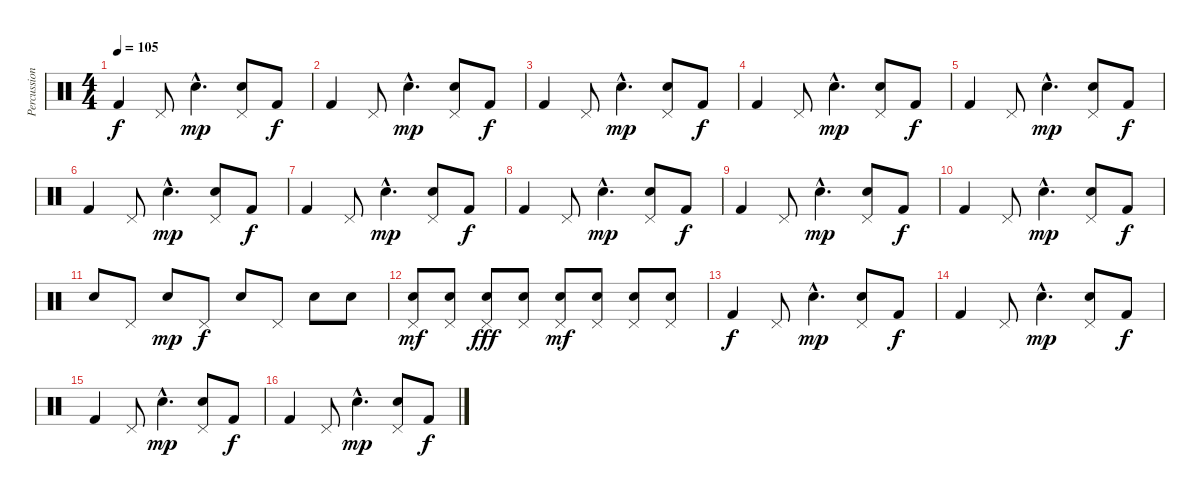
\track ("Percussion" "Percussion") {instrument percussion}
\staff {score}
\articulation defaults
\ts (4 4)
\tempo 105
\clef neutral
\ks c "Kick (hit) 2".4{dy f} "Pedal Hi-Hat (hit)".8 "Hand Clap (hit)"{hac}.4{d dy mp}
("Pedal Hi-Hat (hit)" "Hand Clap (hit)").8 "Kick (hit) 2".8{dy f} |
"Kick (hit) 2".4 "Pedal Hi-Hat (hit)".8 "Hand Clap (hit)"{hac}.4{d dy mp} ("Pedal Hi-Hat (hit)" "Hand Clap (hit)").8 "Kick (hit) 2".8{dy f} |
"Kick (hit) 2".4 "Pedal Hi-Hat (hit)".8 "Hand Clap (hit)"{hac}.4{d dy mp} ("Pedal Hi-Hat (hit)" "Hand Clap (hit)").8 "Kick (hit) 2".8{dy f} |
"Kick (hit) 2".4 "Pedal Hi-Hat (hit)".8 "Hand Clap (hit)"{hac}.4{d dy mp} ("Pedal Hi-Hat (hit)" "Hand Clap (hit)").8 "Kick (hit) 2".8{dy f} |
"Kick (hit) 2".4 "Pedal Hi-Hat (hit)".8 "Hand Clap (hit)"{hac}.4{d dy mp} ("Pedal Hi-Hat (hit)" "Hand Clap (hit)").8 "Kick (hit) 2".8{dy f} |
"Kick (hit) 2".4 "Pedal Hi-Hat (hit)".8 "Hand Clap (hit)"{hac}.4{d dy mp} ("Pedal Hi-Hat (hit)" "Hand Clap (hit)").8 "Kick (hit) 2".8{dy f} |
"Kick (hit) 2".4 "Pedal Hi-Hat (hit)".8 "Hand Clap (hit)"{hac}.4{d dy mp} ("Pedal Hi-Hat (hit)" "Hand Clap (hit)").8 "Kick (hit) 2".8{dy f} |
"Kick (hit) 2".4 "Pedal Hi-Hat (hit)".8 "Hand Clap (hit)"{hac}.4{d dy mp} ("Pedal Hi-Hat (hit)" "Hand Clap (hit)").8 "Kick (hit) 2".8{dy f} |
"Kick (hit) 2".4 "Pedal Hi-Hat (hit)".8 "Hand Clap (hit)"{hac}.4{d dy mp} ("Pedal Hi-Hat (hit)" "Hand Clap (hit)").8 "Kick (hit) 2".8{dy f} |
"Kick (hit) 2".4 "Pedal Hi-Hat (hit)".8 "Hand Clap (hit)"{hac}.4{d dy mp} ("Pedal Hi-Hat (hit)" "Hand Clap (hit)").8 "Kick (hit) 2".8{dy f} |
"Hand Clap (hit)".8 "Pedal Hi-Hat (hit)".8 "Hand Clap (hit)".8{dy mp} "Pedal Hi-Hat (hit)".8{dy f} "Hand Clap (hit)".8 "Pedal Hi-Hat (hit)".8 "Hand Clap (hit)".8 "Hand Clap (hit)".8 |
("Pedal Hi-Hat (hit)" "Hand Clap (hit)").8{dy mf} ("Pedal Hi-Hat (hit)" "Hand Clap (hit)").8 ("Pedal Hi-Hat (hit)" "Hand Clap (hit)").8{dy fff} ("Pedal Hi-Hat (hit)" "Hand Clap (hit)").8 ("Pedal Hi-Hat (hit)" "Hand Clap (hit)").8{dy mf} ("Pedal Hi-Hat (hit)" "Hand Clap (hit)").8 ("Pedal Hi-Hat (hit)" "Hand Clap (hit)").8 ("Pedal Hi-Hat (hit)" "Hand Clap (hit)").8 |
"Kick (hit) 2".4{dy f} "Pedal Hi-Hat (hit)".8 "Hand Clap (hit)"{hac}.4{d dy mp} ("Pedal Hi-Hat (hit)" "Hand Clap (hit)").8 "Kick (hit) 2".8{dy f} |
"Kick (hit) 2".4 "Pedal Hi-Hat (hit)".8 "Hand Clap (hit)"{hac}.4{d dy mp} ("Pedal Hi-Hat (hit)" "Hand Clap (hit)").8 "Kick (hit) 2".8{dy f} |
"Kick (hit) 2".4 "Pedal Hi-Hat (hit)".8 "Hand Clap (hit)"{hac}.4{d dy mp} ("Pedal Hi-Hat (hit)" "Hand Clap (hit)").8 "Kick (hit) 2".8{dy f} |
"Kick (hit) 2".4 "Pedal Hi-Hat (hit)".8 "Hand Clap (hit)"{hac}.4{d dy mp} ("Pedal Hi-Hat (hit)" "Hand Clap (hit)").8 "Kick (hit) 2".8{dy f}
